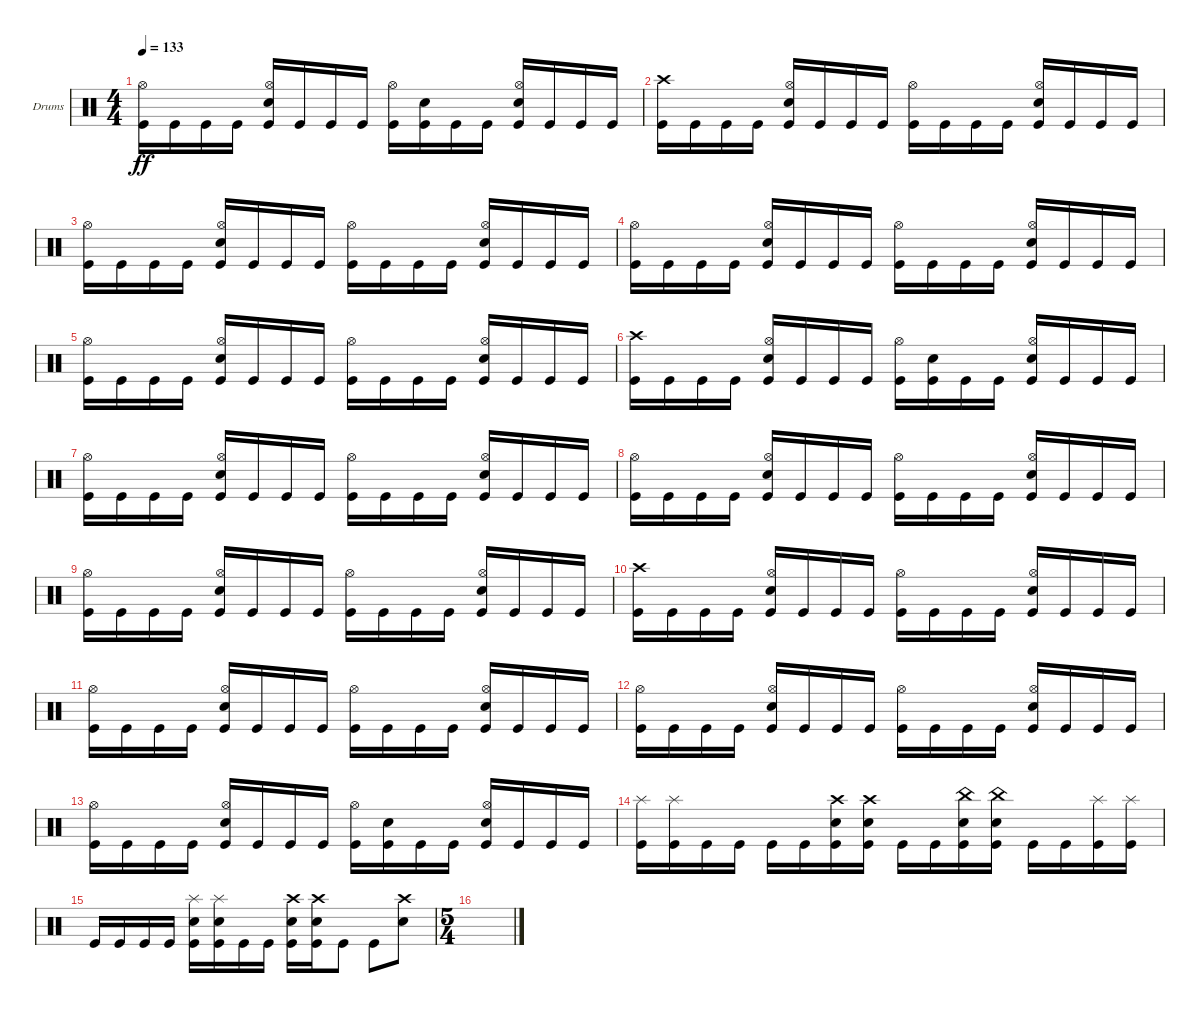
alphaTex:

\bracketExtendMode groupsimilarinstruments
\firstSystemTrackNameOrientation horizontal
\otherSystemsTrackNameOrientation horizontal
\track ("Drumkit" "Drums") {instrument percussion}
\staff {score}
\articulation defaults
\ts (4 4)
\tempo 133
\clef neutral
\ks c
("Kick (hit)" "Hi-Hat (open)").16{dy ff} "Kick (hit)".16 "Kick (hit)".16 "Kick (hit)".16 ("Kick (hit)" "Hi-Hat (open)" "Snare (hit) 2").16 "Kick (hit)".16 "Kick (hit)".16 "Kick (hit)".16 ("Kick (hit)" "Hi-Hat (open)").16 ("Kick (hit)" "Snare (hit) 2").16 "Kick (hit)".16 "Kick (hit)".16 ("Kick (hit)" "Hi-Hat (open)" "Snare (hit) 2").16 "Kick (hit)".16 "Kick (hit)".16 "Kick (hit)".16 |
("Kick (hit)" "Crash high (hit)").16 "Kick (hit)".16 "Kick (hit)".16 "Kick (hit)".16 ("Kick (hit)" "Hi-Hat (open)" "Snare (hit) 2").16 "Kick (hit)".16 "Kick (hit)".16 "Kick (hit)".16 ("Kick (hit)" "Hi-Hat (open)").16 "Kick (hit)".16 "Kick (hit)".16 "Kick (hit)".16 ("Kick (hit)" "Hi-Hat (open)" "Snare (hit) 2").16 "Kick (hit)".16 "Kick (hit)".16 "Kick (hit)".16 |
("Kick (hit)" "Hi-Hat (open)").16 "Kick (hit)".16 "Kick (hit)".16 "Kick (hit)".16 ("Kick (hit)" "Hi-Hat (open)" "Snare (hit) 2").16 "Kick (hit)".16 "Kick (hit)".16 "Kick (hit)".16 ("Kick (hit)" "Hi-Hat (open)").16 "Kick (hit)".16 "Kick (hit)".16 "Kick (hit)".16 ("Kick (hit)" "Hi-Hat (open)" "Snare (hit) 2").16 "Kick (hit)".16 "Kick (hit)".16 "Kick (hit)".16 |
("Kick (hit)" "Hi-Hat (open)").16 "Kick (hit)".16 "Kick (hit)".16 "Kick (hit)".16 ("Kick (hit)" "Hi-Hat (open)" "Snare (hit) 2").16 "Kick (hit)".16 "Kick (hit)".16 "Kick (hit)".16 ("Kick (hit)" "Hi-Hat (open)").16 "Kick (hit)".16 "Kick (hit)".16 "Kick (hit)".16 ("Kick (hit)" "Hi-Hat (open)" "Snare (hit) 2").16 "Kick (hit)".16 "Kick (hit)".16 "Kick (hit)".16 |
("Kick (hit)" "Hi-Hat (open)").16 "Kick (hit)".16 "Kick (hit)".16 "Kick (hit)".16 ("Kick (hit)" "Hi-Hat (open)" "Snare (hit) 2").16 "Kick (hit)".16 "Kick (hit)".16 "Kick (hit)".16 ("Kick (hit)" "Hi-Hat (open)").16 "Kick (hit)".16 "Kick (hit)".16 "Kick (hit)".16 ("Kick (hit)" "Hi-Hat (open)" "Snare (hit) 2").16 "Kick (hit)".16 "Kick (hit)".16 "Kick (hit)".16 |
("Kick (hit)" "Crash high (hit)").16 "Kick (hit)".16 "Kick (hit)".16 "Kick (hit)".16 ("Kick (hit)" "Hi-Hat (open)" "Snare (hit) 2").16 "Kick (hit)".16 "Kick (hit)".16 "Kick (hit)".16 ("Kick (hit)" "Hi-Hat (open)").16 ("Kick (hit)" "Snare (hit) 2").16 "Kick (hit)".16 "Kick (hit)".16 ("Kick (hit)" "Hi-Hat (open)" "Snare (hit) 2").16 "Kick (hit)".16 "Kick (hit)".16 "Kick (hit)".16 |
("Kick (hit)" "Hi-Hat (open)").16 "Kick (hit)".16 "Kick (hit)".16 "Kick (hit)".16 ("Kick (hit)" "Hi-Hat (open)" "Snare (hit) 2").16 "Kick (hit)".16 "Kick (hit)".16 "Kick (hit)".16 ("Kick (hit)" "Hi-Hat (open)").16 "Kick (hit)".16 "Kick (hit)".16 "Kick (hit)".16 ("Kick (hit)" "Hi-Hat (open)" "Snare (hit) 2").16 "Kick (hit)".16 "Kick (hit)".16 "Kick (hit)".16 |
("Kick (hit)" "Hi-Hat (open)").16 "Kick (hit)".16 "Kick (hit)".16 "Kick (hit)".16 ("Kick (hit)" "Hi-Hat (open)" "Snare (hit) 2").16 "Kick (hit)".16 "Kick (hit)".16 "Kick (hit)".16 ("Kick (hit)" "Hi-Hat (open)").16 "Kick (hit)".16 "Kick (hit)".16 "Kick (hit)".16 ("Kick (hit)" "Hi-Hat (open)" "Snare (hit) 2").16 "Kick (hit)".16 "Kick (hit)".16 "Kick (hit)".16 |
("Kick (hit)" "Hi-Hat (open)").16 "Kick (hit)".16 "Kick (hit)".16 "Kick (hit)".16 ("Kick (hit)" "Hi-Hat (open)" "Snare (hit) 2").16 "Kick (hit)".16 "Kick (hit)".16 "Kick (hit)".16 ("Kick (hit)" "Hi-Hat (open)").16 "Kick (hit)".16 "Kick (hit)".16 "Kick (hit)".16 ("Kick (hit)" "Hi-Hat (open)" "Snare (hit) 2").16 "Kick (hit)".16 "Kick (hit)".16 "Kick (hit)".16 |
("Kick (hit)" "Crash high (hit)").16 "Kick (hit)".16 "Kick (hit)".16 "Kick (hit)".16 ("Kick (hit)" "Hi-Hat (open)" "Snare (hit) 2").16 "Kick (hit)".16 "Kick (hit)".16 "Kick (hit)".16 ("Kick (hit)" "Hi-Hat (open)").16 "Kick (hit)".16 "Kick (hit)".16 "Kick (hit)".16 ("Kick (hit)" "Hi-Hat (open)" "Snare (hit) 2").16 "Kick (hit)".16 "Kick (hit)".16 "Kick (hit)".16 |
("Kick (hit)" "Hi-Hat (open)").16 "Kick (hit)".16 "Kick (hit)".16 "Kick (hit)".16 ("Kick (hit)" "Hi-Hat (open)" "Snare (hit) 2").16 "Kick (hit)".16 "Kick (hit)".16 "Kick (hit)".16 ("Kick (hit)" "Hi-Hat (open)").16 "Kick (hit)".16 "Kick (hit)".16 "Kick (hit)".16 ("Kick (hit)" "Hi-Hat (open)" "Snare (hit) 2").16 "Kick (hit)".16 "Kick (hit)".16 "Kick (hit)".16 |
("Kick (hit)" "Hi-Hat (open)").16 "Kick (hit)".16 "Kick (hit)".16 "Kick (hit)".16 ("Kick (hit)" "Hi-Hat (open)" "Snare (hit) 2").16 "Kick (hit)".16 "Kick (hit)".16 "Kick (hit)".16 ("Kick (hit)" "Hi-Hat (open)").16 "Kick (hit)".16 "Kick (hit)".16 "Kick (hit)".16 ("Kick (hit)" "Hi-Hat (open)" "Snare (hit) 2").16 "Kick (hit)".16 "Kick (hit)".16 "Kick (hit)".16 |
("Kick (hit)" "Hi-Hat (open)").16 "Kick (hit)".16 "Kick (hit)".16 "Kick (hit)".16 ("Kick (hit)" "Hi-Hat (open)" "Snare (hit) 2").16 "Kick (hit)".16 "Kick (hit)".16 "Kick (hit)".16 ("Kick (hit)" "Hi-Hat (open)").16 ("Kick (hit)" "Snare (hit) 2").16 "Kick (hit)".16 "Kick (hit)".16 ("Kick (hit)" "Hi-Hat (open)" "Snare (hit) 2").16 "Kick (hit)".16 "Kick (hit)".16 "Kick (hit)".16 |
("Kick (hit)" "Splash (hit)").16 ("Kick (hit)" "Splash (hit)").16 "Kick (hit)".16 "Kick (hit)".16 "Kick (hit)".16 "Kick (hit)".16 ("Kick (hit)" "Crash high (hit)" "Snare (hit) 2").16 ("Kick (hit)" "Crash high (hit)" "Snare (hit) 2").16 "Kick (hit)".16 "Kick (hit)".16 ("Kick (hit)" "China (hit)" "Snare (hit) 2").16 ("Kick (hit)" "China (hit)" "Snare (hit) 2").16 "Kick (hit)".16 "Kick (hit)".16 ("Kick (hit)" "Splash (hit)").16 ("Kick (hit)" "Splash (hit)").16 |
"Kick (hit)".16 "Kick (hit)".16 "Kick (hit)".16 "Kick (hit)".16 ("Kick (hit)" "Snare (hit) 2" "Splash (hit)").16 ("Kick (hit)" "Snare (hit) 2" "Splash (hit)").16 "Kick (hit)".16 "Kick (hit)".16 ("Kick (hit)" "Snare (hit) 2" "Crash high (hit)").16 ("Kick (hit)" "Snare (hit) 2" "Crash high (hit)").16 "Kick (hit)".8 "Kick (hit)".8 ("Snare (hit) 2" "Crash high (hit)").8 |
\ts (5 4)
